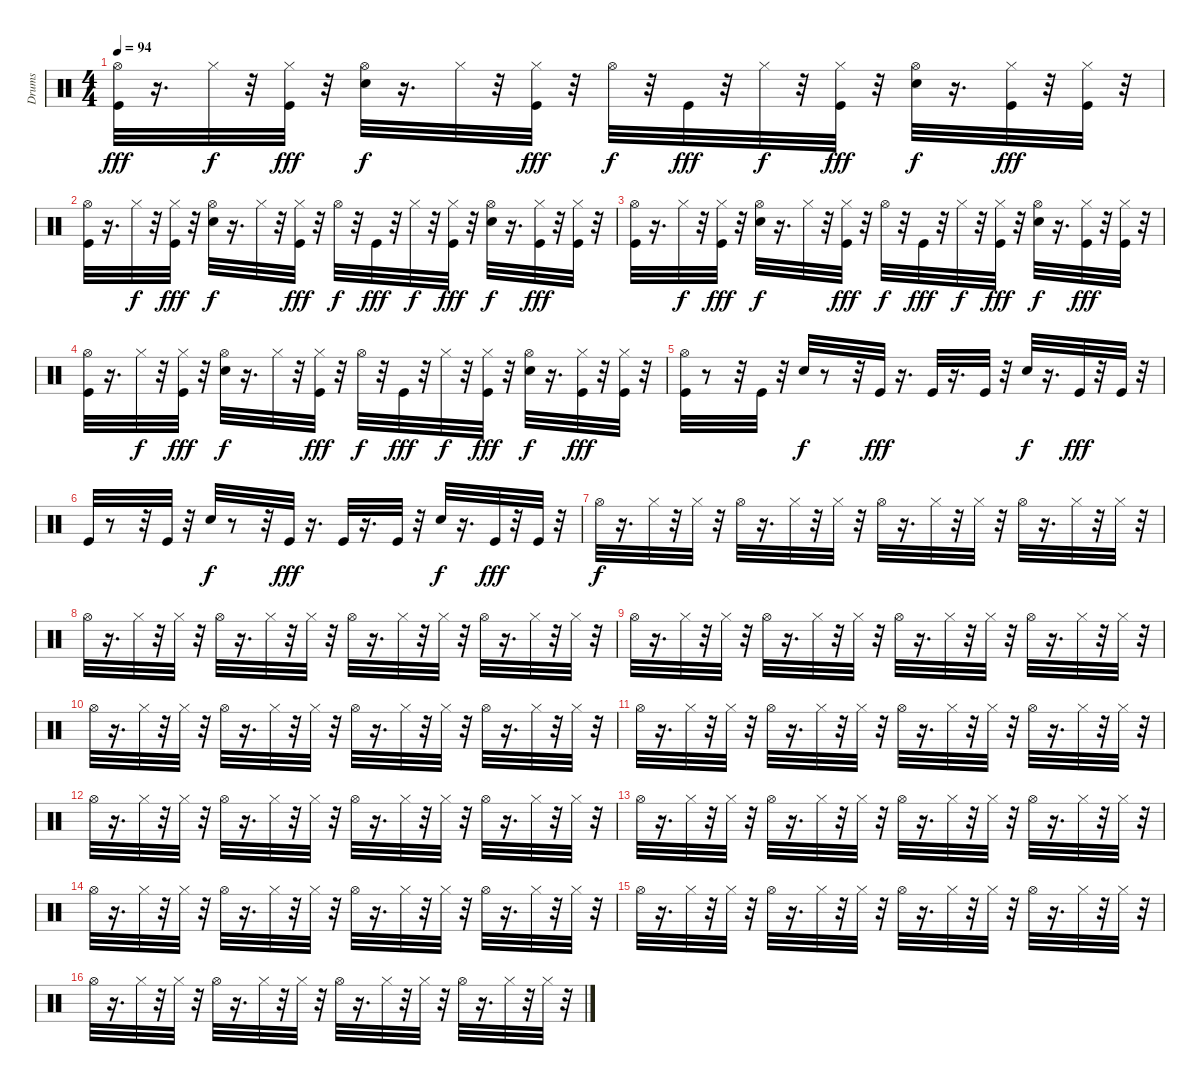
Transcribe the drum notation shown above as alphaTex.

\track ("Drums" "Drums") {instrument percussion}
\staff {score}
\articulation defaults
\ts (4 4)
\tempo 94
\clef neutral
\ks c
("Kick (hit)" "Hi-Hat (open)").32{dy fff} r.16{d} "Hi-Hat (closed)".32{dy f} r.32 ("Kick (hit)" "Hi-Hat (closed)").32{dy fff} r.32 ("Snare (hit) 2" "Hi-Hat (open)").32{dy f} r.16{d} "Hi-Hat (closed)".32 r.32 ("Kick (hit)" "Hi-Hat (closed)").32{dy fff} r.32 "Hi-Hat (open)".32{dy f} r.32 "Kick (hit)".32{dy fff} r.32 "Hi-Hat (closed)".32{dy f} r.32 ("Kick (hit)" "Hi-Hat (closed)").32{dy fff} r.32 ("Snare (hit) 2" "Hi-Hat (open)").32{dy f} r.16{d} ("Kick (hit)" "Hi-Hat (closed)").32{dy fff} r.32 ("Kick (hit)" "Hi-Hat (closed)").32 r.32 |
("Kick (hit)" "Hi-Hat (open)").32 r.16{d} "Hi-Hat (closed)".32{dy f} r.32 ("Kick (hit)" "Hi-Hat (closed)").32{dy fff} r.32 ("Snare (hit) 2" "Hi-Hat (open)").32{dy f} r.16{d} "Hi-Hat (closed)".32 r.32 ("Kick (hit)" "Hi-Hat (closed)").32{dy fff} r.32 "Hi-Hat (open)".32{dy f} r.32 "Kick (hit)".32{dy fff} r.32 "Hi-Hat (closed)".32{dy f} r.32 ("Kick (hit)" "Hi-Hat (closed)").32{dy fff} r.32 ("Snare (hit) 2" "Hi-Hat (open)").32{dy f} r.16{d} ("Kick (hit)" "Hi-Hat (closed)").32{dy fff} r.32 ("Kick (hit)" "Hi-Hat (closed)").32 r.32 |
("Kick (hit)" "Hi-Hat (open)").32 r.16{d} "Hi-Hat (closed)".32{dy f} r.32 ("Kick (hit)" "Hi-Hat (closed)").32{dy fff} r.32 ("Snare (hit) 2" "Hi-Hat (open)").32{dy f} r.16{d} "Hi-Hat (closed)".32 r.32 ("Kick (hit)" "Hi-Hat (closed)").32{dy fff} r.32 "Hi-Hat (open)".32{dy f} r.32 "Kick (hit)".32{dy fff} r.32 "Hi-Hat (closed)".32{dy f} r.32 ("Kick (hit)" "Hi-Hat (closed)").32{dy fff} r.32 ("Snare (hit) 2" "Hi-Hat (open)").32{dy f} r.16{d} ("Kick (hit)" "Hi-Hat (closed)").32{dy fff} r.32 ("Kick (hit)" "Hi-Hat (closed)").32 r.32 |
("Kick (hit)" "Hi-Hat (open)").32 r.16{d} "Hi-Hat (closed)".32{dy f} r.32 ("Kick (hit)" "Hi-Hat (closed)").32{dy fff} r.32 ("Snare (hit) 2" "Hi-Hat (open)").32{dy f} r.16{d} "Hi-Hat (closed)".32 r.32 ("Kick (hit)" "Hi-Hat (closed)").32{dy fff} r.32 "Hi-Hat (open)".32{dy f} r.32 "Kick (hit)".32{dy fff} r.32 "Hi-Hat (closed)".32{dy f} r.32 ("Kick (hit)" "Hi-Hat (closed)").32{dy fff} r.32 ("Snare (hit) 2" "Hi-Hat (open)").32{dy f} r.16{d} ("Kick (hit)" "Hi-Hat (closed)").32{dy fff} r.32 ("Kick (hit)" "Hi-Hat (closed)").32 r.32 |
("Kick (hit)" "Hi-Hat (open)").32 r.8 r.32 "Kick (hit)".32 r.32 "Snare (hit) 2".32{dy f} r.8 r.32 "Kick (hit)".32{dy fff} r.16{d} "Kick (hit)".32 r.16{d} "Kick (hit)".32 r.32 "Snare (hit) 2".32{dy f} r.16{d} "Kick (hit)".32{dy fff} r.32 "Kick (hit)".32 r.32 |
"Kick (hit)".32 r.8 r.32 "Kick (hit)".32 r.32 "Snare (hit) 2".32{dy f} r.8 r.32 "Kick (hit)".32{dy fff} r.16{d} "Kick (hit)".32 r.16{d} "Kick (hit)".32 r.32 "Snare (hit) 2".32{dy f} r.16{d} "Kick (hit)".32{dy fff} r.32 "Kick (hit)".32 r.32 |
"Hi-Hat (open)".32{dy f} r.16{d} "Hi-Hat (closed)".32 r.32 "Hi-Hat (closed)".32 r.32 "Hi-Hat (open)".32 r.16{d} "Hi-Hat (closed)".32 r.32 "Hi-Hat (closed)".32 r.32 "Hi-Hat (open)".32 r.16{d} "Hi-Hat (closed)".32 r.32 "Hi-Hat (closed)".32 r.32 "Hi-Hat (open)".32 r.16{d} "Hi-Hat (closed)".32 r.32 "Hi-Hat (closed)".32 r.32 |
"Hi-Hat (open)".32 r.16{d} "Hi-Hat (closed)".32 r.32 "Hi-Hat (closed)".32 r.32 "Hi-Hat (open)".32 r.16{d} "Hi-Hat (closed)".32 r.32 "Hi-Hat (closed)".32 r.32 "Hi-Hat (open)".32 r.16{d} "Hi-Hat (closed)".32 r.32 "Hi-Hat (closed)".32 r.32 "Hi-Hat (open)".32 r.16{d} "Hi-Hat (closed)".32 r.32 "Hi-Hat (closed)".32 r.32 |
"Hi-Hat (open)".32 r.16{d} "Hi-Hat (closed)".32 r.32 "Hi-Hat (closed)".32 r.32 "Hi-Hat (open)".32 r.16{d} "Hi-Hat (closed)".32 r.32 "Hi-Hat (closed)".32 r.32 "Hi-Hat (open)".32 r.16{d} "Hi-Hat (closed)".32 r.32 "Hi-Hat (closed)".32 r.32 "Hi-Hat (open)".32 r.16{d} "Hi-Hat (closed)".32 r.32 "Hi-Hat (closed)".32 r.32 |
"Hi-Hat (open)".32 r.16{d} "Hi-Hat (closed)".32 r.32 "Hi-Hat (closed)".32 r.32 "Hi-Hat (open)".32 r.16{d} "Hi-Hat (closed)".32 r.32 "Hi-Hat (closed)".32 r.32 "Hi-Hat (open)".32 r.16{d} "Hi-Hat (closed)".32 r.32 "Hi-Hat (closed)".32 r.32 "Hi-Hat (open)".32 r.16{d} "Hi-Hat (closed)".32 r.32 "Hi-Hat (closed)".32 r.32 |
"Hi-Hat (open)".32 r.16{d} "Hi-Hat (closed)".32 r.32 "Hi-Hat (closed)".32 r.32 "Hi-Hat (open)".32 r.16{d} "Hi-Hat (closed)".32 r.32 "Hi-Hat (closed)".32 r.32 "Hi-Hat (open)".32 r.16{d} "Hi-Hat (closed)".32 r.32 "Hi-Hat (closed)".32 r.32 "Hi-Hat (open)".32 r.16{d} "Hi-Hat (closed)".32 r.32 "Hi-Hat (closed)".32 r.32 |
"Hi-Hat (open)".32 r.16{d} "Hi-Hat (closed)".32 r.32 "Hi-Hat (closed)".32 r.32 "Hi-Hat (open)".32 r.16{d} "Hi-Hat (closed)".32 r.32 "Hi-Hat (closed)".32 r.32 "Hi-Hat (open)".32 r.16{d} "Hi-Hat (closed)".32 r.32 "Hi-Hat (closed)".32 r.32 "Hi-Hat (open)".32 r.16{d} "Hi-Hat (closed)".32 r.32 "Hi-Hat (closed)".32 r.32 |
"Hi-Hat (open)".32 r.16{d} "Hi-Hat (closed)".32 r.32 "Hi-Hat (closed)".32 r.32 "Hi-Hat (open)".32 r.16{d} "Hi-Hat (closed)".32 r.32 "Hi-Hat (closed)".32 r.32 "Hi-Hat (open)".32 r.16{d} "Hi-Hat (closed)".32 r.32 "Hi-Hat (closed)".32 r.32 "Hi-Hat (open)".32 r.16{d} "Hi-Hat (closed)".32 r.32 "Hi-Hat (closed)".32 r.32 |
"Hi-Hat (open)".32 r.16{d} "Hi-Hat (closed)".32 r.32 "Hi-Hat (closed)".32 r.32 "Hi-Hat (open)".32 r.16{d} "Hi-Hat (closed)".32 r.32 "Hi-Hat (closed)".32 r.32 "Hi-Hat (open)".32 r.16{d} "Hi-Hat (closed)".32 r.32 "Hi-Hat (closed)".32 r.32 "Hi-Hat (open)".32 r.16{d} "Hi-Hat (closed)".32 r.32 "Hi-Hat (closed)".32 r.32 |
"Hi-Hat (open)".32 r.16{d} "Hi-Hat (closed)".32 r.32 "Hi-Hat (closed)".32 r.32 "Hi-Hat (open)".32 r.16{d} "Hi-Hat (closed)".32 r.32 "Hi-Hat (closed)".32 r.32 "Hi-Hat (open)".32 r.16{d} "Hi-Hat (closed)".32 r.32 "Hi-Hat (closed)".32 r.32 "Hi-Hat (open)".32 r.16{d} "Hi-Hat (closed)".32 r.32 "Hi-Hat (closed)".32 r.32 |
"Hi-Hat (open)".32 r.16{d} "Hi-Hat (closed)".32 r.32 "Hi-Hat (closed)".32 r.32 "Hi-Hat (open)".32 r.16{d} "Hi-Hat (closed)".32 r.32 "Hi-Hat (closed)".32 r.32 "Hi-Hat (open)".32 r.16{d} "Hi-Hat (closed)".32 r.32 "Hi-Hat (closed)".32 r.32 "Hi-Hat (open)".32 r.16{d} "Hi-Hat (closed)".32 r.32 "Hi-Hat (closed)".32 r.32
